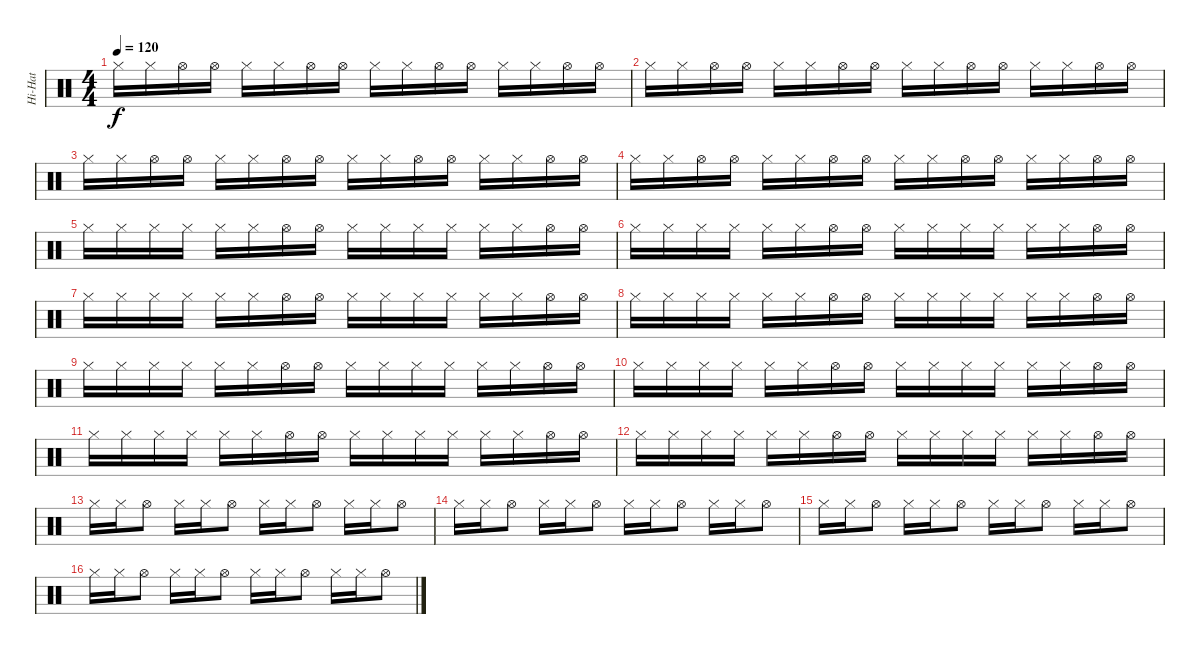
\track ("Hi-Hat" "Hi-Hat") {instrument percussion}
\staff {score}
\articulation defaults
\ts (4 4)
\tempo 120
\clef neutral
\ks c "Hi-Hat (closed)".16{dy f} "Hi-Hat (closed)".16 "Hi-Hat (open)".16 "Hi-Hat (open)".16 "Hi-Hat (closed)".16 "Hi-Hat (closed)".16 "Hi-Hat (open)".16 "Hi-Hat (open)".16 "Hi-Hat (closed)".16 "Hi-Hat (closed)".16 "Hi-Hat (open)".16 "Hi-Hat (open)".16 "Hi-Hat (closed)".16 "Hi-Hat (closed)".16 "Hi-Hat (open)".16 "Hi-Hat (open)".16
|
"Hi-Hat (closed)".16 "Hi-Hat (closed)".16 "Hi-Hat (open)".16 "Hi-Hat (open)".16 "Hi-Hat (closed)".16 "Hi-Hat (closed)".16 "Hi-Hat (open)".16 "Hi-Hat (open)".16 "Hi-Hat (closed)".16 "Hi-Hat (closed)".16 "Hi-Hat (open)".16 "Hi-Hat (open)".16 "Hi-Hat (closed)".16 "Hi-Hat (closed)".16 "Hi-Hat (open)".16 "Hi-Hat (open)".16 |
"Hi-Hat (closed)".16 "Hi-Hat (closed)".16 "Hi-Hat (open)".16 "Hi-Hat (open)".16 "Hi-Hat (closed)".16 "Hi-Hat (closed)".16 "Hi-Hat (open)".16 "Hi-Hat (open)".16 "Hi-Hat (closed)".16 "Hi-Hat (closed)".16 "Hi-Hat (open)".16 "Hi-Hat (open)".16 "Hi-Hat (closed)".16 "Hi-Hat (closed)".16 "Hi-Hat (open)".16 "Hi-Hat (open)".16 |
"Hi-Hat (closed)".16 "Hi-Hat (closed)".16 "Hi-Hat (open)".16 "Hi-Hat (open)".16 "Hi-Hat (closed)".16 "Hi-Hat (closed)".16 "Hi-Hat (open)".16 "Hi-Hat (open)".16 "Hi-Hat (closed)".16 "Hi-Hat (closed)".16 "Hi-Hat (open)".16 "Hi-Hat (open)".16 "Hi-Hat (closed)".16 "Hi-Hat (closed)".16 "Hi-Hat (open)".16 "Hi-Hat (open)".16 |
"Hi-Hat (closed)".16 "Hi-Hat (closed)".16 "Hi-Hat (closed)".16 "Hi-Hat (closed)".16 "Hi-Hat (closed)".16 "Hi-Hat (closed)".16 "Hi-Hat (open)".16 "Hi-Hat (open)".16 "Hi-Hat (closed)".16 "Hi-Hat (closed)".16 "Hi-Hat (closed)".16 "Hi-Hat (closed)".16 "Hi-Hat (closed)".16 "Hi-Hat (closed)".16 "Hi-Hat (open)".16 "Hi-Hat (open)".16 |
"Hi-Hat (closed)".16 "Hi-Hat (closed)".16 "Hi-Hat (closed)".16 "Hi-Hat (closed)".16 "Hi-Hat (closed)".16 "Hi-Hat (closed)".16 "Hi-Hat (open)".16 "Hi-Hat (open)".16 "Hi-Hat (closed)".16 "Hi-Hat (closed)".16 "Hi-Hat (closed)".16 "Hi-Hat (closed)".16 "Hi-Hat (closed)".16 "Hi-Hat (closed)".16 "Hi-Hat (open)".16 "Hi-Hat (open)".16 |
"Hi-Hat (closed)".16 "Hi-Hat (closed)".16 "Hi-Hat (closed)".16 "Hi-Hat (closed)".16 "Hi-Hat (closed)".16 "Hi-Hat (closed)".16 "Hi-Hat (open)".16 "Hi-Hat (open)".16 "Hi-Hat (closed)".16 "Hi-Hat (closed)".16 "Hi-Hat (closed)".16 "Hi-Hat (closed)".16 "Hi-Hat (closed)".16 "Hi-Hat (closed)".16 "Hi-Hat (open)".16 "Hi-Hat (open)".16 |
"Hi-Hat (closed)".16 "Hi-Hat (closed)".16 "Hi-Hat (closed)".16 "Hi-Hat (closed)".16 "Hi-Hat (closed)".16 "Hi-Hat (closed)".16 "Hi-Hat (open)".16 "Hi-Hat (open)".16 "Hi-Hat (closed)".16 "Hi-Hat (closed)".16 "Hi-Hat (closed)".16 "Hi-Hat (closed)".16 "Hi-Hat (closed)".16 "Hi-Hat (closed)".16 "Hi-Hat (open)".16 "Hi-Hat (open)".16 |
"Hi-Hat (closed)".16 "Hi-Hat (closed)".16 "Hi-Hat (closed)".16 "Hi-Hat (closed)".16 "Hi-Hat (closed)".16 "Hi-Hat (closed)".16 "Hi-Hat (open)".16 "Hi-Hat (open)".16 "Hi-Hat (closed)".16 "Hi-Hat (closed)".16 "Hi-Hat (closed)".16 "Hi-Hat (closed)".16 "Hi-Hat (closed)".16 "Hi-Hat (closed)".16 "Hi-Hat (open)".16 "Hi-Hat (open)".16 |
"Hi-Hat (closed)".16 "Hi-Hat (closed)".16 "Hi-Hat (closed)".16 "Hi-Hat (closed)".16 "Hi-Hat (closed)".16 "Hi-Hat (closed)".16 "Hi-Hat (open)".16 "Hi-Hat (open)".16 "Hi-Hat (closed)".16 "Hi-Hat (closed)".16 "Hi-Hat (closed)".16 "Hi-Hat (closed)".16 "Hi-Hat (closed)".16 "Hi-Hat (closed)".16 "Hi-Hat (open)".16 "Hi-Hat (open)".16 |
"Hi-Hat (closed)".16 "Hi-Hat (closed)".16 "Hi-Hat (closed)".16 "Hi-Hat (closed)".16 "Hi-Hat (closed)".16 "Hi-Hat (closed)".16 "Hi-Hat (open)".16 "Hi-Hat (open)".16 "Hi-Hat (closed)".16 "Hi-Hat (closed)".16 "Hi-Hat (closed)".16 "Hi-Hat (closed)".16 "Hi-Hat (closed)".16 "Hi-Hat (closed)".16 "Hi-Hat (open)".16 "Hi-Hat (open)".16 |
"Hi-Hat (closed)".16 "Hi-Hat (closed)".16 "Hi-Hat (closed)".16 "Hi-Hat (closed)".16 "Hi-Hat (closed)".16 "Hi-Hat (closed)".16 "Hi-Hat (open)".16 "Hi-Hat (open)".16 "Hi-Hat (closed)".16 "Hi-Hat (closed)".16 "Hi-Hat (closed)".16 "Hi-Hat (closed)".16 "Hi-Hat (closed)".16 "Hi-Hat (closed)".16 "Hi-Hat (open)".16 "Hi-Hat (open)".16 |
"Hi-Hat (closed)".16 "Hi-Hat (closed)".16 "Hi-Hat (open)".8 "Hi-Hat (closed)".16 "Hi-Hat (closed)".16 "Hi-Hat (open)".8 "Hi-Hat (closed)".16 "Hi-Hat (closed)".16 "Hi-Hat (open)".8 "Hi-Hat (closed)".16 "Hi-Hat (closed)".16 "Hi-Hat (open)".8 |
"Hi-Hat (closed)".16 "Hi-Hat (closed)".16 "Hi-Hat (open)".8 "Hi-Hat (closed)".16 "Hi-Hat (closed)".16 "Hi-Hat (open)".8 "Hi-Hat (closed)".16 "Hi-Hat (closed)".16 "Hi-Hat (open)".8 "Hi-Hat (closed)".16 "Hi-Hat (closed)".16 "Hi-Hat (open)".8 |
"Hi-Hat (closed)".16 "Hi-Hat (closed)".16 "Hi-Hat (open)".8 "Hi-Hat (closed)".16 "Hi-Hat (closed)".16 "Hi-Hat (open)".8 "Hi-Hat (closed)".16 "Hi-Hat (closed)".16 "Hi-Hat (open)".8 "Hi-Hat (closed)".16 "Hi-Hat (closed)".16 "Hi-Hat (open)".8 |
"Hi-Hat (closed)".16 "Hi-Hat (closed)".16 "Hi-Hat (open)".8 "Hi-Hat (closed)".16 "Hi-Hat (closed)".16 "Hi-Hat (open)".8 "Hi-Hat (closed)".16 "Hi-Hat (closed)".16 "Hi-Hat (open)".8 "Hi-Hat (closed)".16 "Hi-Hat (closed)".16 "Hi-Hat (open)".8
